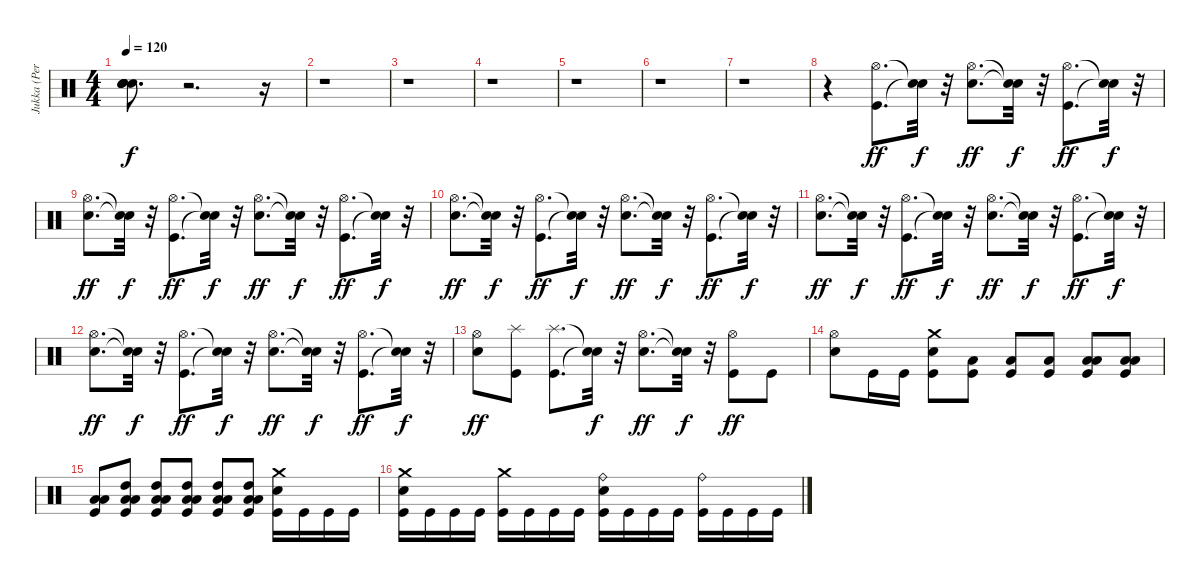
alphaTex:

\track ("Jukka (Percussion)" "Jukka (Per") {instrument percussion}
\staff {score}
\articulation defaults
\ts (4 4)
\tempo 120
\clef neutral
\ks c
("Snare (hit)"{t} "Snare (hit)"{t} "Snare (hit)"{t} "Snare (hit)"{t}).8{d dy f} r.2{d} r.16 |
r.1 |
r.1 |
r.1 |
r.1 |
r.1 |
r.1 |
r.4 ("Kick (hit)" "Hi-Hat (open)").8{d dy ff} ("Snare (hit)"{t} "Snare (hit)"{t}).32{dy f} r.32 ("Electric Snare (hit)" "Hi-Hat (open)").8{d dy ff} ("Snare (hit)"{t} "Snare (hit)"{t}).32{dy f} r.32 ("Kick (hit)" "Hi-Hat (open)").8{d dy ff} ("Snare (hit)"{t} "Snare (hit)"{t}).32{dy f} r.32 |
("Electric Snare (hit)" "Hi-Hat (open)").8{d dy ff} ("Snare (hit)"{t} "Snare (hit)"{t}).32{dy f} r.32 ("Kick (hit)" "Hi-Hat (open)").8{d dy ff} ("Snare (hit)"{t} "Snare (hit)"{t}).32{dy f} r.32 ("Electric Snare (hit)" "Hi-Hat (open)").8{d dy ff} ("Snare (hit)"{t} "Snare (hit)"{t}).32{dy f} r.32 ("Kick (hit)" "Hi-Hat (open)").8{d dy ff} ("Snare (hit)"{t} "Snare (hit)"{t}).32{dy f} r.32 |
("Electric Snare (hit)" "Hi-Hat (open)").8{d dy ff} ("Snare (hit)"{t} "Snare (hit)"{t}).32{dy f} r.32 ("Kick (hit)" "Hi-Hat (open)").8{d dy ff} ("Snare (hit)"{t} "Snare (hit)"{t}).32{dy f} r.32 ("Electric Snare (hit)" "Hi-Hat (open)").8{d dy ff} ("Snare (hit)"{t} "Snare (hit)"{t}).32{dy f} r.32 ("Kick (hit)" "Hi-Hat (open)").8{d dy ff} ("Snare (hit)"{t} "Snare (hit)"{t}).32{dy f} r.32 |
("Electric Snare (hit)" "Hi-Hat (open)").8{d dy ff} ("Snare (hit)"{t} "Snare (hit)"{t}).32{dy f} r.32 ("Kick (hit)" "Hi-Hat (open)").8{d dy ff} ("Snare (hit)"{t} "Snare (hit)"{t}).32{dy f} r.32 ("Electric Snare (hit)" "Hi-Hat (open)").8{d dy ff} ("Snare (hit)"{t} "Snare (hit)"{t}).32{dy f} r.32 ("Kick (hit)" "Hi-Hat (open)").8{d dy ff} ("Snare (hit)"{t} "Snare (hit)"{t}).32{dy f} r.32 |
("Electric Snare (hit)" "Hi-Hat (open)").8{d dy ff} ("Snare (hit)"{t} "Snare (hit)"{t}).32{dy f} r.32 ("Kick (hit)" "Hi-Hat (open)").8{d dy ff} ("Snare (hit)"{t} "Snare (hit)"{t}).32{dy f} r.32 ("Electric Snare (hit)" "Hi-Hat (open)").8{d dy ff} ("Snare (hit)"{t} "Snare (hit)"{t}).32{dy f} r.32 ("Kick (hit)" "Hi-Hat (open)").8{d dy ff} ("Snare (hit)"{t} "Snare (hit)"{t}).32{dy f} r.32 |
("Electric Snare (hit)" "Hi-Hat (open)").8{dy ff} ("Kick (hit)" "Splash (hit)").8 ("Kick (hit)" "Splash (hit)").8{d} ("Snare (hit)"{t} "Snare (hit)"{t}).32{dy f} r.32 ("Electric Snare (hit)" "Hi-Hat (open)").8{d dy ff} ("Snare (hit)"{t} "Snare (hit)"{t}).32{dy f} r.32 ("Kick (hit)" "Hi-Hat (open)").8{dy ff} "Kick (hit)".8 |
("Electric Snare (hit)" "Hi-Hat (open)").8 "Kick (hit)".16 "Kick (hit)".16 ("Kick (hit)" "Electric Snare (hit)" "Crash medium (hit)").8 ("Kick (hit)" "Low Floor Tom (hit)").8 ("Kick (hit)" "Low Floor Tom (hit)").8 ("Kick (hit)" "Low Floor Tom (hit)").8 ("Kick (hit)" "Low Floor Tom (hit)" "Low Tom (hit)").8 ("Kick (hit)" "Low Floor Tom (hit)" "Low Tom (hit)").8 |
("Kick (hit)" "Low Floor Tom (hit)" "Low Tom (hit)").8 ("Kick (hit)" "Low Floor Tom (hit)" "Low Tom (hit)" "High Tom (hit)").8 ("Kick (hit)" "Low Floor Tom (hit)" "Low Tom (hit)" "High Tom (hit)").8 ("Kick (hit)" "Low Floor Tom (hit)" "Low Tom (hit)" "High Tom (hit)").8 ("Kick (hit)" "Low Floor Tom (hit)" "Low Tom (hit)" "High Tom (hit)").8 ("Kick (hit)" "Low Floor Tom (hit)" "Low Tom (hit)" "High Tom (hit)").8 ("Kick (hit)" "Electric Snare (hit)" "Crash medium (hit)").16 "Kick (hit)".16 "Kick (hit)".16 "Kick (hit)".16 |
("Kick (hit)" "Electric Snare (hit)" "Crash medium (hit)").16 "Kick (hit)".16 "Kick (hit)".16 "Kick (hit)".16 ("Kick (hit)" "Crash medium (hit)").16 "Kick (hit)".16 "Kick (hit)".16 "Kick (hit)".16 ("Kick (hit)" "Electric Snare (hit)" "Ride (bell)").16 "Kick (hit)".16 "Kick (hit)".16 "Kick (hit)".16 ("Kick (hit)" "Ride (bell)").16 "Kick (hit)".16 "Kick (hit)".16 "Kick (hit)".16
